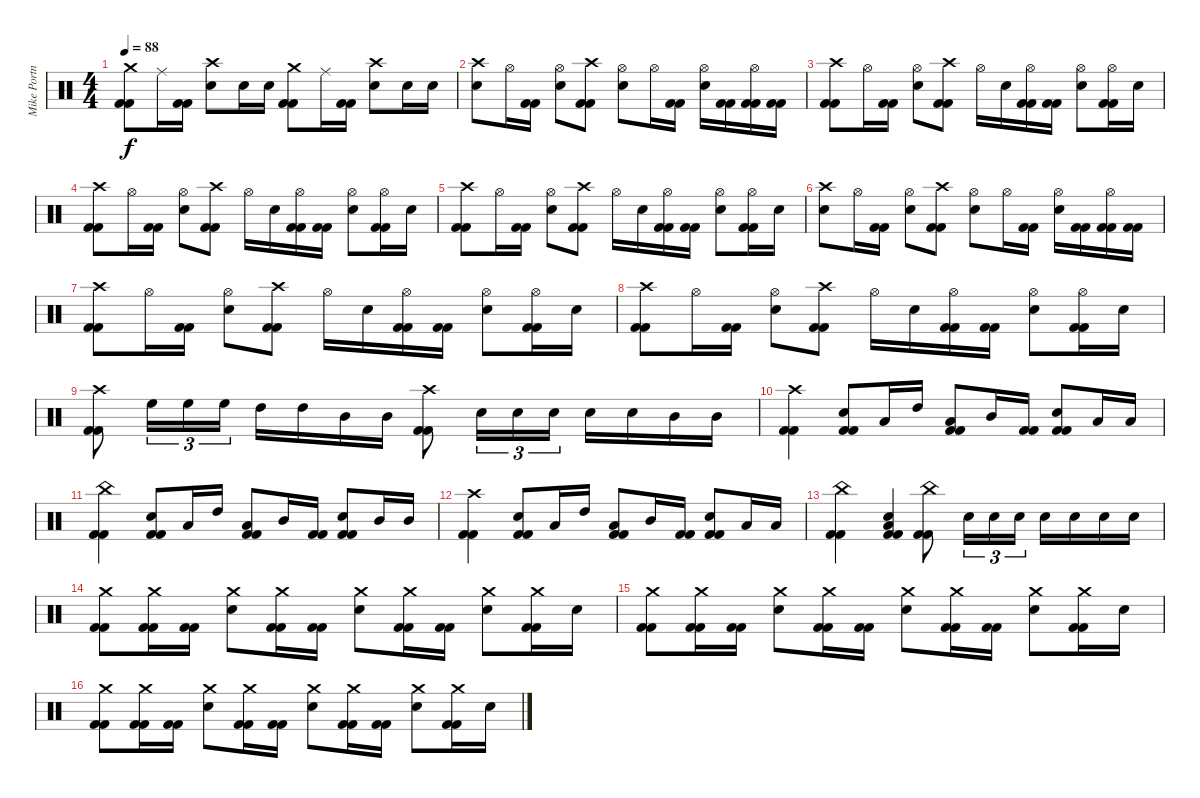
\track ("Mike Portnoy" "Mike Portn") {instrument percussion}
\staff {score}
\articulation defaults
\ts (4 4)
\tempo 88
\clef neutral
\ks c
("Crash medium (hit)" "Kick (hit) 2" "Kick (hit) 2").8{dy f} "Ride (middle)".16 ("Kick (hit) 2" "Kick (hit) 2").16 ("Crash high (hit)" "Snare (hit) 2").8 "Snare (hit) 2".16 "Snare (hit) 2".16 ("Crash medium (hit)" "Kick (hit) 2" "Kick (hit) 2").8 "Ride (middle)".16 ("Kick (hit) 2" "Kick (hit) 2").16 ("Crash high (hit)" "Snare (hit) 2").8 "Snare (hit) 2".16 "Snare (hit) 2".16 |
("Crash high (hit)" "Snare (hit) 2").8 "Hi-Hat (open)".16 ("Kick (hit) 2" "Kick (hit) 2").16 ("Hi-Hat (open)" "Snare (hit) 2").8 ("Crash high (hit)" "Kick (hit) 2" "Kick (hit) 2").8 ("Hi-Hat (open)" "Snare (hit) 2").8 "Hi-Hat (open)".16 ("Kick (hit) 2" "Kick (hit) 2").16 ("Hi-Hat (open)" "Snare (hit) 2").16 ("Kick (hit) 2" "Kick (hit) 2").16 ("Hi-Hat (open)" "Kick (hit) 2" "Kick (hit) 2").16 ("Kick (hit) 2" "Kick (hit) 2").16 |
("Crash high (hit)" "Kick (hit) 2" "Kick (hit) 2").8 "Hi-Hat (open)".16 ("Kick (hit) 2" "Kick (hit) 2").16 ("Hi-Hat (open)" "Snare (hit) 2").8 ("Crash high (hit)" "Kick (hit) 2" "Kick (hit) 2").8 "Hi-Hat (open)".16 "Snare (hit) 2".16 ("Hi-Hat (open)" "Kick (hit) 2" "Kick (hit) 2").16 ("Kick (hit) 2" "Kick (hit) 2").16 ("Hi-Hat (open)" "Snare (hit) 2").8 ("Hi-Hat (open)" "Kick (hit) 2" "Kick (hit) 2").16 "Snare (hit) 2".16 |
("Crash high (hit)" "Kick (hit) 2" "Kick (hit) 2").8 "Hi-Hat (open)".16 ("Kick (hit) 2" "Kick (hit) 2").16 ("Hi-Hat (open)" "Snare (hit) 2").8 ("Crash high (hit)" "Kick (hit) 2" "Kick (hit) 2").8 "Hi-Hat (open)".16 "Snare (hit) 2".16 ("Hi-Hat (open)" "Kick (hit) 2" "Kick (hit) 2").16 ("Kick (hit) 2" "Kick (hit) 2").16 ("Hi-Hat (open)" "Snare (hit) 2").8 ("Hi-Hat (open)" "Kick (hit) 2" "Kick (hit) 2").16 "Snare (hit) 2".16 |
("Crash high (hit)" "Kick (hit) 2" "Kick (hit) 2").8 "Hi-Hat (open)".16 ("Kick (hit) 2" "Kick (hit) 2").16 ("Hi-Hat (open)" "Snare (hit) 2").8 ("Crash high (hit)" "Kick (hit) 2" "Kick (hit) 2").8 "Hi-Hat (open)".16 "Snare (hit) 2".16 ("Hi-Hat (open)" "Kick (hit) 2" "Kick (hit) 2").16 ("Kick (hit) 2" "Kick (hit) 2").16 ("Hi-Hat (open)" "Snare (hit) 2").8 ("Hi-Hat (open)" "Kick (hit) 2" "Kick (hit) 2").16 "Snare (hit) 2".16 |
("Crash high (hit)" "Snare (hit) 2").8 "Hi-Hat (open)".16 ("Kick (hit) 2" "Kick (hit) 2").16 ("Hi-Hat (open)" "Snare (hit) 2").8 ("Crash high (hit)" "Kick (hit) 2" "Kick (hit) 2").8 ("Hi-Hat (open)" "Snare (hit) 2").8 "Hi-Hat (open)".16 ("Kick (hit) 2" "Kick (hit) 2").16 ("Hi-Hat (open)" "Snare (hit) 2").16 ("Kick (hit) 2" "Kick (hit) 2").16 ("Hi-Hat (open)" "Kick (hit) 2" "Kick (hit) 2").16 ("Kick (hit) 2" "Kick (hit) 2").16 |
("Crash high (hit)" "Kick (hit) 2" "Kick (hit) 2").8 "Hi-Hat (open)".16 ("Kick (hit) 2" "Kick (hit) 2").16 ("Hi-Hat (open)" "Snare (hit) 2").8 ("Crash high (hit)" "Kick (hit) 2" "Kick (hit) 2").8 "Hi-Hat (open)".16 "Snare (hit) 2".16 ("Hi-Hat (open)" "Kick (hit) 2" "Kick (hit) 2").16 ("Kick (hit) 2" "Kick (hit) 2").16 ("Hi-Hat (open)" "Snare (hit) 2").8 ("Hi-Hat (open)" "Kick (hit) 2" "Kick (hit) 2").16 "Snare (hit) 2".16 |
("Crash high (hit)" "Kick (hit) 2" "Kick (hit) 2").8 "Hi-Hat (open)".16 ("Kick (hit) 2" "Kick (hit) 2").16 ("Hi-Hat (open)" "Snare (hit) 2").8 ("Crash high (hit)" "Kick (hit) 2" "Kick (hit) 2").8 "Hi-Hat (open)".16 "Snare (hit) 2".16 ("Hi-Hat (open)" "Kick (hit) 2" "Kick (hit) 2").16 ("Kick (hit) 2" "Kick (hit) 2").16 ("Hi-Hat (open)" "Snare (hit) 2").8 ("Hi-Hat (open)" "Kick (hit) 2" "Kick (hit) 2").16 "Snare (hit) 2".16 |
("Crash high (hit)" "Kick (hit) 2" "Kick (hit) 2").8 "High Floor Tom (hit)".16{tu (3 2)} "High Floor Tom (hit)".16{tu (3 2)} "High Floor Tom (hit)".16{tu (3 2)} "High Tom (hit)".16 "High Tom (hit)".16 "Mid Tom (hit)".16 "Mid Tom (hit)".16 ("Crash high (hit)" "Kick (hit) 2" "Kick (hit) 2").8 "Snare (hit) 2".16{tu (3 2)} "Snare (hit) 2".16{tu (3 2)} "Snare (hit) 2".16{tu (3 2)} "Snare (hit) 2".16 "Snare (hit) 2".16 "Mid Tom (hit)".16 "Mid Tom (hit)".16 |
("Crash high (hit)" "Kick (hit) 2" "Kick (hit) 2").4 ("Snare (hit) 2" "Kick (hit) 2" "Kick (hit) 2").8 "Low Tom (hit)".16 "High Tom (hit)".16 ("Low Tom (hit)" "Kick (hit) 2" "Kick (hit) 2").8 "Mid Tom (hit)".16 ("Kick (hit) 2" "Kick (hit) 2").16 ("Snare (hit) 2" "Kick (hit) 2" "Kick (hit) 2").8 "Low Tom (hit)".16 "Low Tom (hit)".16 |
("China (hit)" "Kick (hit) 2" "Kick (hit) 2").4 ("Snare (hit) 2" "Kick (hit) 2" "Kick (hit) 2").8 "Low Tom (hit)".16 "High Tom (hit)".16 ("Low Tom (hit)" "Kick (hit) 2" "Kick (hit) 2").8 "Mid Tom (hit)".16 ("Kick (hit) 2" "Kick (hit) 2").16 ("Snare (hit) 2" "Kick (hit) 2" "Kick (hit) 2").8 "Mid Tom (hit)".16 "Mid Tom (hit)".16 |
("Crash high (hit)" "Kick (hit) 2" "Kick (hit) 2").4 ("Snare (hit) 2" "Kick (hit) 2" "Kick (hit) 2").8 "Low Tom (hit)".16 "High Tom (hit)".16 ("Low Tom (hit)" "Kick (hit) 2" "Kick (hit) 2").8 "Mid Tom (hit)".16 ("Kick (hit) 2" "Kick (hit) 2").16 ("Snare (hit) 2" "Kick (hit) 2" "Kick (hit) 2").8 "Low Tom (hit)".16 "Low Tom (hit)".16 |
("China (hit)" "Kick (hit) 2" "Kick (hit) 2").4 ("Snare (hit) 2" "Low Tom (hit)" "Kick (hit) 2" "Kick (hit) 2").4 ("China (hit)" "Kick (hit) 2" "Kick (hit) 2").8 "Snare (hit) 2".16{tu (3 2)} "Snare (hit) 2".16{tu (3 2)} "Snare (hit) 2".16{tu (3 2)} "Snare (hit) 2".16 "Snare (hit) 2".16 "Snare (hit) 2".16 "Snare (hit) 2".16 |
("Crash medium (hit)" "Kick (hit) 2" "Kick (hit) 2").8 ("Crash medium (hit)" "Kick (hit) 2" "Kick (hit) 2").16 ("Kick (hit) 2" "Kick (hit) 2").16 ("Crash medium (hit)" "Snare (hit) 2").8 ("Crash medium (hit)" "Kick (hit) 2" "Kick (hit) 2").16 ("Kick (hit) 2" "Kick (hit) 2").16 ("Crash medium (hit)" "Snare (hit) 2").8 ("Crash medium (hit)" "Kick (hit) 2" "Kick (hit) 2").16 ("Kick (hit) 2" "Kick (hit) 2").16 ("Crash medium (hit)" "Snare (hit) 2").8 ("Crash medium (hit)" "Kick (hit) 2" "Kick (hit) 2").16 "Snare (hit) 2".16 |
("Crash medium (hit)" "Kick (hit) 2" "Kick (hit) 2").8 ("Crash medium (hit)" "Kick (hit) 2" "Kick (hit) 2").16 ("Kick (hit) 2" "Kick (hit) 2").16 ("Crash medium (hit)" "Snare (hit) 2").8 ("Crash medium (hit)" "Kick (hit) 2" "Kick (hit) 2").16 ("Kick (hit) 2" "Kick (hit) 2").16 ("Crash medium (hit)" "Snare (hit) 2").8 ("Crash medium (hit)" "Kick (hit) 2" "Kick (hit) 2").16 ("Kick (hit) 2" "Kick (hit) 2").16 ("Crash medium (hit)" "Snare (hit) 2").8 ("Crash medium (hit)" "Kick (hit) 2" "Kick (hit) 2").16 "Snare (hit) 2".16 |
("Crash medium (hit)" "Kick (hit) 2" "Kick (hit) 2").8 ("Crash medium (hit)" "Kick (hit) 2" "Kick (hit) 2").16 ("Kick (hit) 2" "Kick (hit) 2").16 ("Crash medium (hit)" "Snare (hit) 2").8 ("Crash medium (hit)" "Kick (hit) 2" "Kick (hit) 2").16 ("Kick (hit) 2" "Kick (hit) 2").16 ("Crash medium (hit)" "Snare (hit) 2").8 ("Crash medium (hit)" "Kick (hit) 2" "Kick (hit) 2").16 ("Kick (hit) 2" "Kick (hit) 2").16 ("Crash medium (hit)" "Snare (hit) 2").8 ("Crash medium (hit)" "Kick (hit) 2" "Kick (hit) 2").16 "Snare (hit) 2".16
